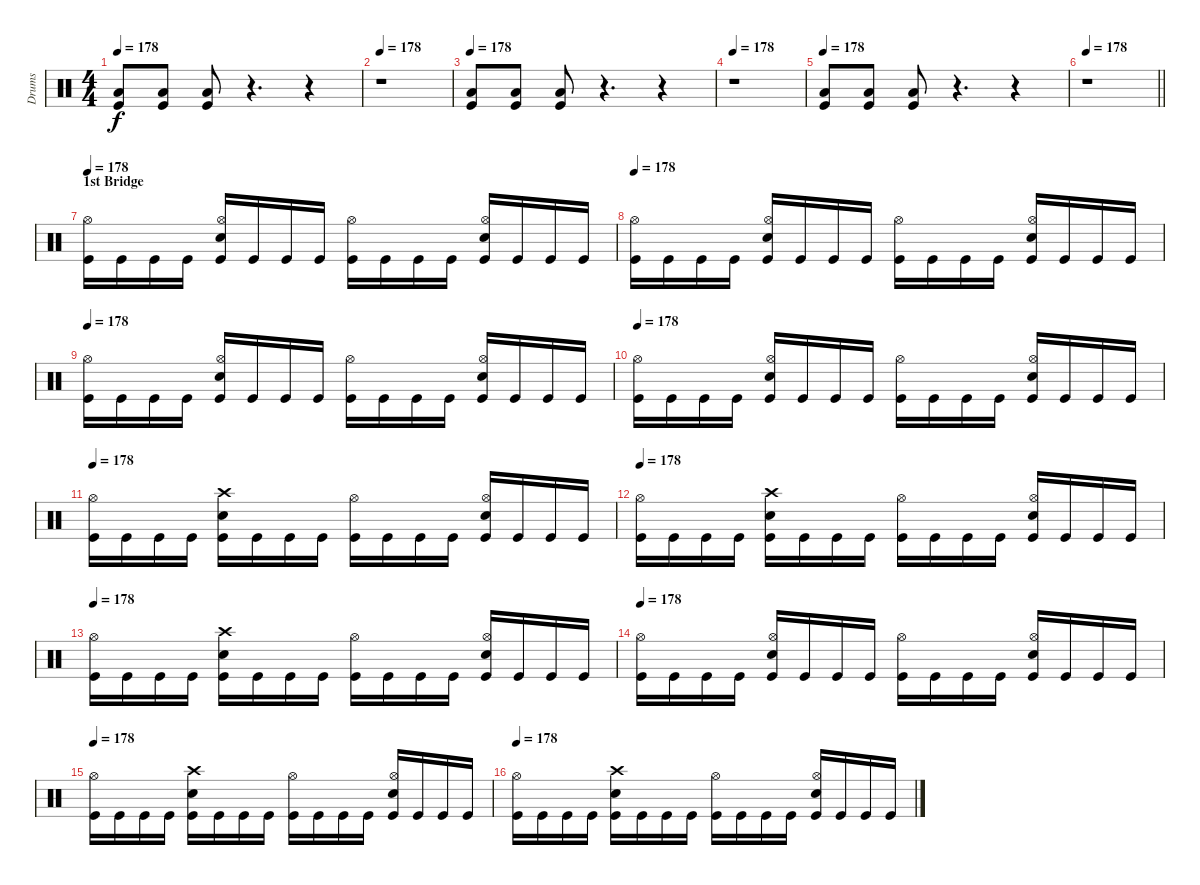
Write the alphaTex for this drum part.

\track ("Drums" "Drums") {instrument percussion}
\staff {score}
\articulation defaults
\ts (4 4)
\tempo 178
\clef neutral
\ks c
("Low Floor Tom (hit)" "Kick (hit)").8{dy f} ("Low Floor Tom (hit)" "Kick (hit)").8 ("Low Floor Tom (hit)" "Kick (hit)").8 r.4{d} r.4 |
\tempo 178
r.1 |
\tempo 178
("Low Floor Tom (hit)" "Kick (hit)").8 ("Low Floor Tom (hit)" "Kick (hit)").8 ("Low Floor Tom (hit)" "Kick (hit)").8 r.4{d} r.4 |
\tempo 178
r.1 |
\tempo 178
("Low Floor Tom (hit)" "Kick (hit)").8 ("Low Floor Tom (hit)" "Kick (hit)").8 ("Low Floor Tom (hit)" "Kick (hit)").8 r.4{d} r.4 |
\tempo 178
\barLineRight lightlight
r.1 |
\section ("" "1st Bridge")
\tempo 178
("Hi-Hat (open)" "Kick (hit)").16 "Kick (hit)".16 "Kick (hit)".16 "Kick (hit)".16 ("Hi-Hat (open)" "Snare (hit) 2" "Kick (hit)").16 "Kick (hit)".16 "Kick (hit)".16 "Kick (hit)".16 ("Hi-Hat (open)" "Kick (hit)").16 "Kick (hit)".16 "Kick (hit)".16 "Kick (hit)".16 ("Hi-Hat (open)" "Snare (hit) 2" "Kick (hit)").16 "Kick (hit)".16 "Kick (hit)".16 "Kick (hit)".16 |
\tempo 178
("Hi-Hat (open)" "Kick (hit)").16 "Kick (hit)".16 "Kick (hit)".16 "Kick (hit)".16 ("Hi-Hat (open)" "Snare (hit) 2" "Kick (hit)").16 "Kick (hit)".16 "Kick (hit)".16 "Kick (hit)".16 ("Hi-Hat (open)" "Kick (hit)").16 "Kick (hit)".16 "Kick (hit)".16 "Kick (hit)".16 ("Hi-Hat (open)" "Snare (hit) 2" "Kick (hit)").16 "Kick (hit)".16 "Kick (hit)".16 "Kick (hit)".16 |
\tempo 178
("Hi-Hat (open)" "Kick (hit)").16 "Kick (hit)".16 "Kick (hit)".16 "Kick (hit)".16 ("Hi-Hat (open)" "Snare (hit) 2" "Kick (hit)").16 "Kick (hit)".16 "Kick (hit)".16 "Kick (hit)".16 ("Hi-Hat (open)" "Kick (hit)").16 "Kick (hit)".16 "Kick (hit)".16 "Kick (hit)".16 ("Hi-Hat (open)" "Snare (hit) 2" "Kick (hit)").16 "Kick (hit)".16 "Kick (hit)".16 "Kick (hit)".16 |
\tempo 178
("Hi-Hat (open)" "Kick (hit)").16 "Kick (hit)".16 "Kick (hit)".16 "Kick (hit)".16 ("Hi-Hat (open)" "Snare (hit) 2" "Kick (hit)").16 "Kick (hit)".16 "Kick (hit)".16 "Kick (hit)".16 ("Hi-Hat (open)" "Kick (hit)").16 "Kick (hit)".16 "Kick (hit)".16 "Kick (hit)".16 ("Hi-Hat (open)" "Snare (hit) 2" "Kick (hit)").16 "Kick (hit)".16 "Kick (hit)".16 "Kick (hit)".16 |
\tempo 178
("Hi-Hat (open)" "Kick (hit)").16 "Kick (hit)".16 "Kick (hit)".16 "Kick (hit)".16 ("Crash high (hit)" "Snare (hit) 2" "Kick (hit)").16 "Kick (hit)".16 "Kick (hit)".16 "Kick (hit)".16 ("Hi-Hat (open)" "Kick (hit)").16 "Kick (hit)".16 "Kick (hit)".16 "Kick (hit)".16 ("Hi-Hat (open)" "Snare (hit) 2" "Kick (hit)").16 "Kick (hit)".16 "Kick (hit)".16 "Kick (hit)".16 |
\tempo 178
("Hi-Hat (open)" "Kick (hit)").16 "Kick (hit)".16 "Kick (hit)".16 "Kick (hit)".16 ("Crash high (hit)" "Snare (hit) 2" "Kick (hit)").16 "Kick (hit)".16 "Kick (hit)".16 "Kick (hit)".16 ("Hi-Hat (open)" "Kick (hit)").16 "Kick (hit)".16 "Kick (hit)".16 "Kick (hit)".16 ("Hi-Hat (open)" "Snare (hit) 2" "Kick (hit)").16 "Kick (hit)".16 "Kick (hit)".16 "Kick (hit)".16 |
\tempo 178
("Hi-Hat (open)" "Kick (hit)").16 "Kick (hit)".16 "Kick (hit)".16 "Kick (hit)".16 ("Crash high (hit)" "Snare (hit) 2" "Kick (hit)").16 "Kick (hit)".16 "Kick (hit)".16 "Kick (hit)".16 ("Hi-Hat (open)" "Kick (hit)").16 "Kick (hit)".16 "Kick (hit)".16 "Kick (hit)".16 ("Hi-Hat (open)" "Snare (hit) 2" "Kick (hit)").16 "Kick (hit)".16 "Kick (hit)".16 "Kick (hit)".16 |
\tempo 178
("Hi-Hat (open)" "Kick (hit)").16 "Kick (hit)".16 "Kick (hit)".16 "Kick (hit)".16 ("Hi-Hat (open)" "Snare (hit) 2" "Kick (hit)").16 "Kick (hit)".16 "Kick (hit)".16 "Kick (hit)".16 ("Hi-Hat (open)" "Kick (hit)").16 "Kick (hit)".16 "Kick (hit)".16 "Kick (hit)".16 ("Hi-Hat (open)" "Snare (hit) 2" "Kick (hit)").16 "Kick (hit)".16 "Kick (hit)".16 "Kick (hit)".16 |
\tempo 178
("Hi-Hat (open)" "Kick (hit)").16 "Kick (hit)".16 "Kick (hit)".16 "Kick (hit)".16 ("Crash high (hit)" "Snare (hit) 2" "Kick (hit)").16 "Kick (hit)".16 "Kick (hit)".16 "Kick (hit)".16 ("Hi-Hat (open)" "Kick (hit)").16 "Kick (hit)".16 "Kick (hit)".16 "Kick (hit)".16 ("Hi-Hat (open)" "Snare (hit) 2" "Kick (hit)").16 "Kick (hit)".16 "Kick (hit)".16 "Kick (hit)".16 |
\tempo 178
("Hi-Hat (open)" "Kick (hit)").16 "Kick (hit)".16 "Kick (hit)".16 "Kick (hit)".16 ("Crash high (hit)" "Snare (hit) 2" "Kick (hit)").16 "Kick (hit)".16 "Kick (hit)".16 "Kick (hit)".16 ("Hi-Hat (open)" "Kick (hit)").16 "Kick (hit)".16 "Kick (hit)".16 "Kick (hit)".16 ("Hi-Hat (open)" "Snare (hit) 2" "Kick (hit)").16 "Kick (hit)".16 "Kick (hit)".16 "Kick (hit)".16
